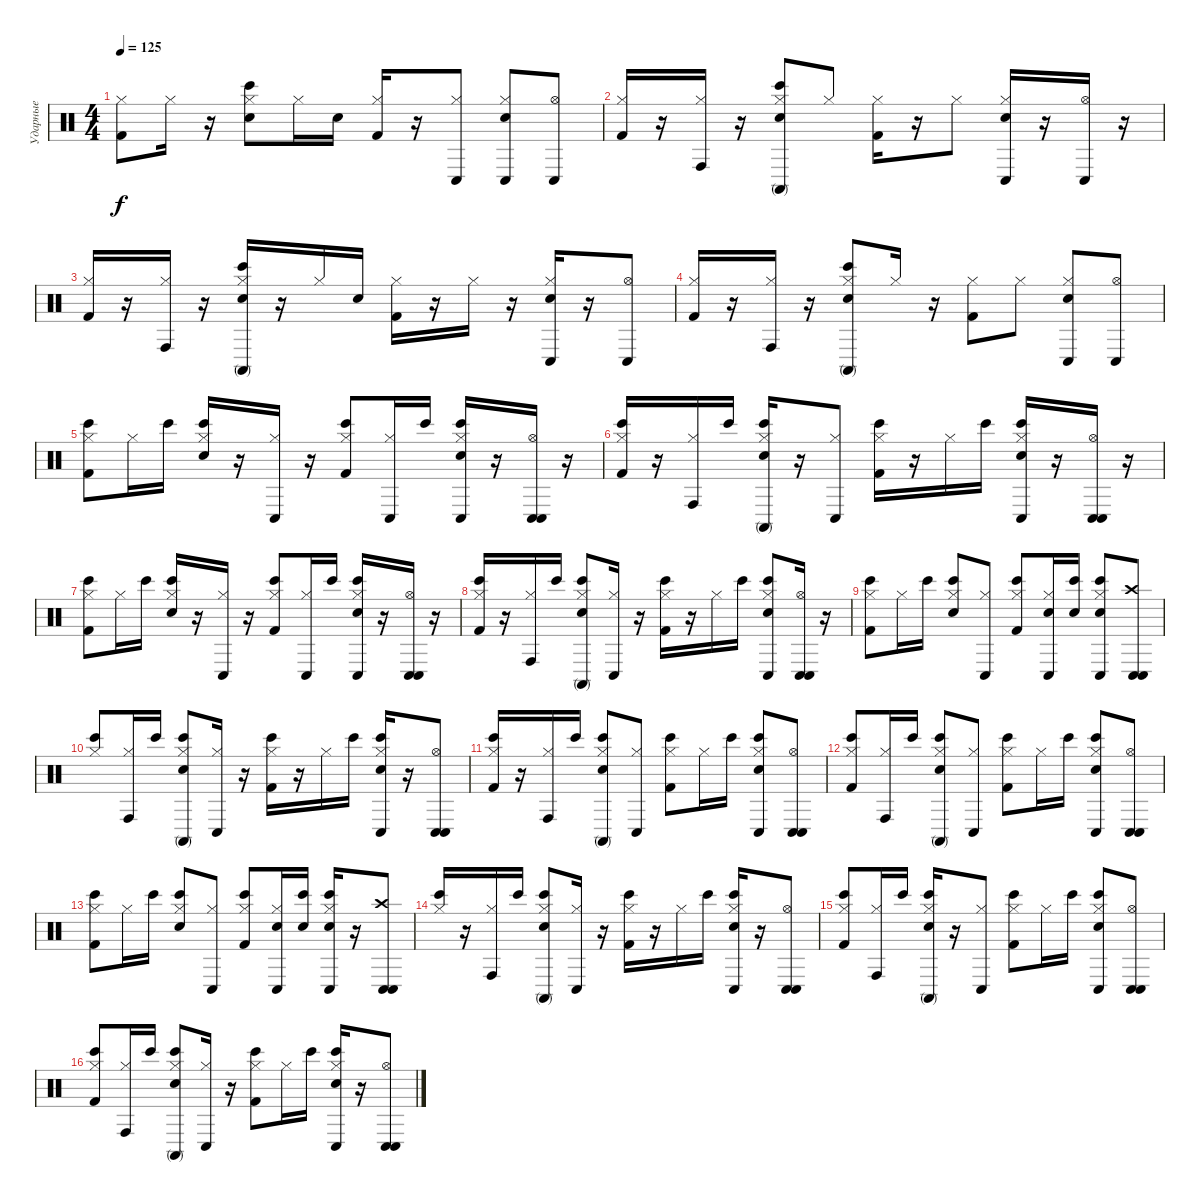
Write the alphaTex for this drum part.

\track ("Ударные" "Ударные") {instrument percussion}
\staff {score}
\articulation defaults
\ts (4 4)
\tempo 125
\clef neutral
\ks c
("Hi-Hat (closed)" "Kick (hit) 2").8{dy f} "Hi-Hat (closed)".16 r.16 ("Hi-Hat (closed)" "Bongo High (hit)" "Electric Snare (hit)").8 "Hi-Hat (closed)".16 "Electric Snare (hit)".16 ("Hi-Hat (closed)" "Kick (hit) 2").16 r.16 ("Hi-Hat (closed)" "Conga low (hit)").8 ("Hi-Hat (closed)" "Conga low (hit)" "Electric Snare (hit)").8 ("Hi-Hat (open)" "Conga low (hit)").8 |
("Hi-Hat (closed)" "Kick (hit) 2").16 r.16 ("Hi-Hat (closed)" "Conga high (hit)").16 r.16 ("Hi-Hat (closed)" "Bongo High (hit)" "Conga high (mute)" "Electric Snare (hit)").8 "Hi-Hat (closed)".8 ("Hi-Hat (closed)" "Kick (hit) 2").16 r.16 "Hi-Hat (closed)".8 ("Hi-Hat (closed)" "Conga low (hit)" "Electric Snare (hit)").16 r.16 ("Hi-Hat (open)" "Conga low (hit)").16 r.16 |
("Hi-Hat (closed)" "Kick (hit) 2").16 r.16 ("Hi-Hat (closed)" "Conga high (hit)").16 r.16 ("Hi-Hat (closed)" "Bongo High (hit)" "Conga high (mute)" "Electric Snare (hit)").16 r.16 "Hi-Hat (closed)".16 "Electric Snare (hit)".16 ("Hi-Hat (closed)" "Kick (hit) 2").16 r.16 "Hi-Hat (closed)".16 r.16 ("Hi-Hat (closed)" "Conga low (hit)" "Electric Snare (hit)").16 r.16 ("Hi-Hat (open)" "Conga low (hit)").8 |
("Hi-Hat (closed)" "Kick (hit) 2").16 r.16 ("Hi-Hat (closed)" "Conga high (hit)").16 r.16 ("Hi-Hat (closed)" "Bongo High (hit)" "Conga high (mute)" "Electric Snare (hit)").8 "Hi-Hat (closed)".16 r.16 ("Hi-Hat (closed)" "Kick (hit) 2").8 "Hi-Hat (closed)".8 ("Hi-Hat (closed)" "Conga low (hit)" "Electric Snare (hit)").8 ("Hi-Hat (open)" "Conga low (hit)").8 |
("Hi-Hat (closed)" "Bongo High (hit)" "Kick (hit) 2").8 "Hi-Hat (closed)".16 "Bongo High (hit)".16 ("Hi-Hat (closed)" "Bongo High (hit)" "Electric Snare (hit)").16 r.16 ("Hi-Hat (closed)" "Conga low (hit)").16 r.16 ("Hi-Hat (closed)" "Bongo High (hit)" "Kick (hit) 2").8 ("Hi-Hat (closed)" "Conga low (hit)").16 "Bongo High (hit)".16 ("Hi-Hat (closed)" "Bongo High (hit)" "Conga low (hit)" "Electric Snare (hit)").16 r.16 ("Hi-Hat (open)" "Conga low (hit)" "Conga low (hit)").16 r.16 |
("Hi-Hat (closed)" "Bongo High (hit)" "Kick (hit) 2").16 r.16 ("Hi-Hat (closed)" "Conga high (hit)").16 "Bongo High (hit)".16 ("Hi-Hat (closed)" "Bongo High (hit)" "Conga high (mute)" "Electric Snare (hit)").16 r.16 ("Hi-Hat (closed)" "Conga low (hit)").8 ("Hi-Hat (closed)" "Bongo High (hit)" "Kick (hit) 2").16 r.16 "Hi-Hat (closed)".16 "Bongo High (hit)".16 ("Hi-Hat (closed)" "Bongo High (hit)" "Conga low (hit)" "Electric Snare (hit)").16 r.16 ("Hi-Hat (open)" "Conga low (hit)" "Conga low (hit)").16 r.16 |
("Hi-Hat (closed)" "Bongo High (hit)" "Kick (hit) 2").8 "Hi-Hat (closed)".16 "Bongo High (hit)".16 ("Hi-Hat (closed)" "Bongo High (hit)" "Electric Snare (hit)").16 r.16 ("Hi-Hat (closed)" "Conga low (hit)").16 r.16 ("Hi-Hat (closed)" "Bongo High (hit)" "Kick (hit) 2").8 ("Hi-Hat (closed)" "Conga low (hit)").16 "Bongo High (hit)".16 ("Hi-Hat (closed)" "Bongo High (hit)" "Conga low (hit)" "Electric Snare (hit)").16 r.16 ("Hi-Hat (open)" "Conga low (hit)" "Conga low (hit)").16 r.16 |
("Hi-Hat (closed)" "Bongo High (hit)" "Kick (hit) 2").16 r.16 ("Hi-Hat (closed)" "Conga high (hit)").16 "Bongo High (hit)".16 ("Hi-Hat (closed)" "Bongo High (hit)" "Conga high (mute)" "Electric Snare (hit)").8 ("Hi-Hat (closed)" "Conga low (hit)").16 r.16 ("Hi-Hat (closed)" "Bongo High (hit)" "Kick (hit) 2").16 r.16 "Hi-Hat (closed)".16 "Bongo High (hit)".16 ("Hi-Hat (closed)" "Bongo High (hit)" "Conga low (hit)" "Electric Snare (hit)").8 ("Hi-Hat (open)" "Conga low (hit)" "Conga low (hit)").16 r.16 |
("Hi-Hat (closed)" "Bongo High (hit)" "Kick (hit) 2").8 "Hi-Hat (closed)".16 "Bongo High (hit)".16 ("Hi-Hat (closed)" "Bongo High (hit)" "Electric Snare (hit)").8 ("Hi-Hat (closed)" "Conga low (hit)").8 ("Hi-Hat (closed)" "Bongo High (hit)" "Kick (hit) 2").8 ("Hi-Hat (closed)" "Conga low (hit)" "Electric Snare (hit)").16 ("Bongo High (hit)" "Electric Snare (hit)").16 ("Hi-Hat (closed)" "Bongo High (hit)" "Conga low (hit)" "Electric Snare (hit)").8 ("Crash high (hit)" "Conga low (hit)" "Conga low (hit)").8 |
("Hi-Hat (closed)" "Bongo High (hit)").8 ("Hi-Hat (closed)" "Conga high (hit)").16 "Bongo High (hit)".16 ("Hi-Hat (closed)" "Bongo High (hit)" "Conga high (mute)" "Electric Snare (hit)").8 ("Hi-Hat (closed)" "Conga low (hit)").16 r.16 ("Hi-Hat (closed)" "Bongo High (hit)" "Kick (hit) 2").16 r.16 "Hi-Hat (closed)".16 "Bongo High (hit)".16 ("Hi-Hat (closed)" "Bongo High (hit)" "Conga low (hit)" "Electric Snare (hit)").16 r.16 ("Hi-Hat (open)" "Conga low (hit)" "Conga low (hit)").8 |
("Hi-Hat (closed)" "Bongo High (hit)" "Kick (hit) 2").16 r.16 ("Hi-Hat (closed)" "Conga high (hit)").16 "Bongo High (hit)".16 ("Hi-Hat (closed)" "Bongo High (hit)" "Conga high (mute)" "Electric Snare (hit)").8 ("Hi-Hat (closed)" "Conga low (hit)").8 ("Hi-Hat (closed)" "Bongo High (hit)" "Kick (hit) 2").8 "Hi-Hat (closed)".16 "Bongo High (hit)".16 ("Hi-Hat (closed)" "Bongo High (hit)" "Conga low (hit)" "Electric Snare (hit)").8 ("Hi-Hat (open)" "Conga low (hit)" "Conga low (hit)").8 |
("Hi-Hat (closed)" "Bongo High (hit)" "Kick (hit) 2").8 ("Hi-Hat (closed)" "Conga high (hit)").16 "Bongo High (hit)".16 ("Hi-Hat (closed)" "Bongo High (hit)" "Conga high (mute)" "Electric Snare (hit)").8 ("Hi-Hat (closed)" "Conga low (hit)").8 ("Hi-Hat (closed)" "Bongo High (hit)" "Kick (hit) 2").8 "Hi-Hat (closed)".16 "Bongo High (hit)".16 ("Hi-Hat (closed)" "Bongo High (hit)" "Conga low (hit)" "Electric Snare (hit)").8 ("Hi-Hat (open)" "Conga low (hit)" "Conga low (hit)").8 |
("Hi-Hat (closed)" "Bongo High (hit)" "Kick (hit) 2").8 "Hi-Hat (closed)".16 "Bongo High (hit)".16 ("Hi-Hat (closed)" "Bongo High (hit)" "Electric Snare (hit)").8 ("Hi-Hat (closed)" "Conga low (hit)").8 ("Hi-Hat (closed)" "Bongo High (hit)" "Kick (hit) 2").8 ("Hi-Hat (closed)" "Conga low (hit)" "Electric Snare (hit)").16 ("Bongo High (hit)" "Electric Snare (hit)").16 ("Hi-Hat (closed)" "Bongo High (hit)" "Conga low (hit)" "Electric Snare (hit)").16 r.16 ("Crash high (hit)" "Conga low (hit)" "Conga low (hit)").8 |
("Hi-Hat (closed)" "Bongo High (hit)").16 r.16 ("Hi-Hat (closed)" "Conga high (hit)").16 "Bongo High (hit)".16 ("Hi-Hat (closed)" "Bongo High (hit)" "Conga high (mute)" "Electric Snare (hit)").8 ("Hi-Hat (closed)" "Conga low (hit)").16 r.16 ("Hi-Hat (closed)" "Bongo High (hit)" "Kick (hit) 2").16 r.16 "Hi-Hat (closed)".16 "Bongo High (hit)".16 ("Hi-Hat (closed)" "Bongo High (hit)" "Conga low (hit)" "Electric Snare (hit)").16 r.16 ("Hi-Hat (open)" "Conga low (hit)" "Conga low (hit)").8 |
("Hi-Hat (closed)" "Bongo High (hit)" "Kick (hit) 2").8 ("Hi-Hat (closed)" "Conga high (hit)").16 "Bongo High (hit)".16 ("Hi-Hat (closed)" "Bongo High (hit)" "Conga high (mute)" "Electric Snare (hit)").16 r.16 ("Hi-Hat (closed)" "Conga low (hit)").8 ("Hi-Hat (closed)" "Bongo High (hit)" "Kick (hit) 2").8 "Hi-Hat (closed)".16 "Bongo High (hit)".16 ("Hi-Hat (closed)" "Bongo High (hit)" "Conga low (hit)" "Electric Snare (hit)").8 ("Hi-Hat (open)" "Conga low (hit)" "Conga low (hit)").8 |
("Hi-Hat (closed)" "Bongo High (hit)" "Kick (hit) 2").8 ("Hi-Hat (closed)" "Conga high (hit)").16 "Bongo High (hit)".16 ("Hi-Hat (closed)" "Bongo High (hit)" "Conga high (mute)" "Electric Snare (hit)").8 ("Hi-Hat (closed)" "Conga low (hit)").16 r.16 ("Hi-Hat (closed)" "Bongo High (hit)" "Kick (hit) 2").8 "Hi-Hat (closed)".16 "Bongo High (hit)".16 ("Hi-Hat (closed)" "Bongo High (hit)" "Conga low (hit)" "Electric Snare (hit)").16 r.16 ("Hi-Hat (open)" "Conga low (hit)" "Conga low (hit)").8
